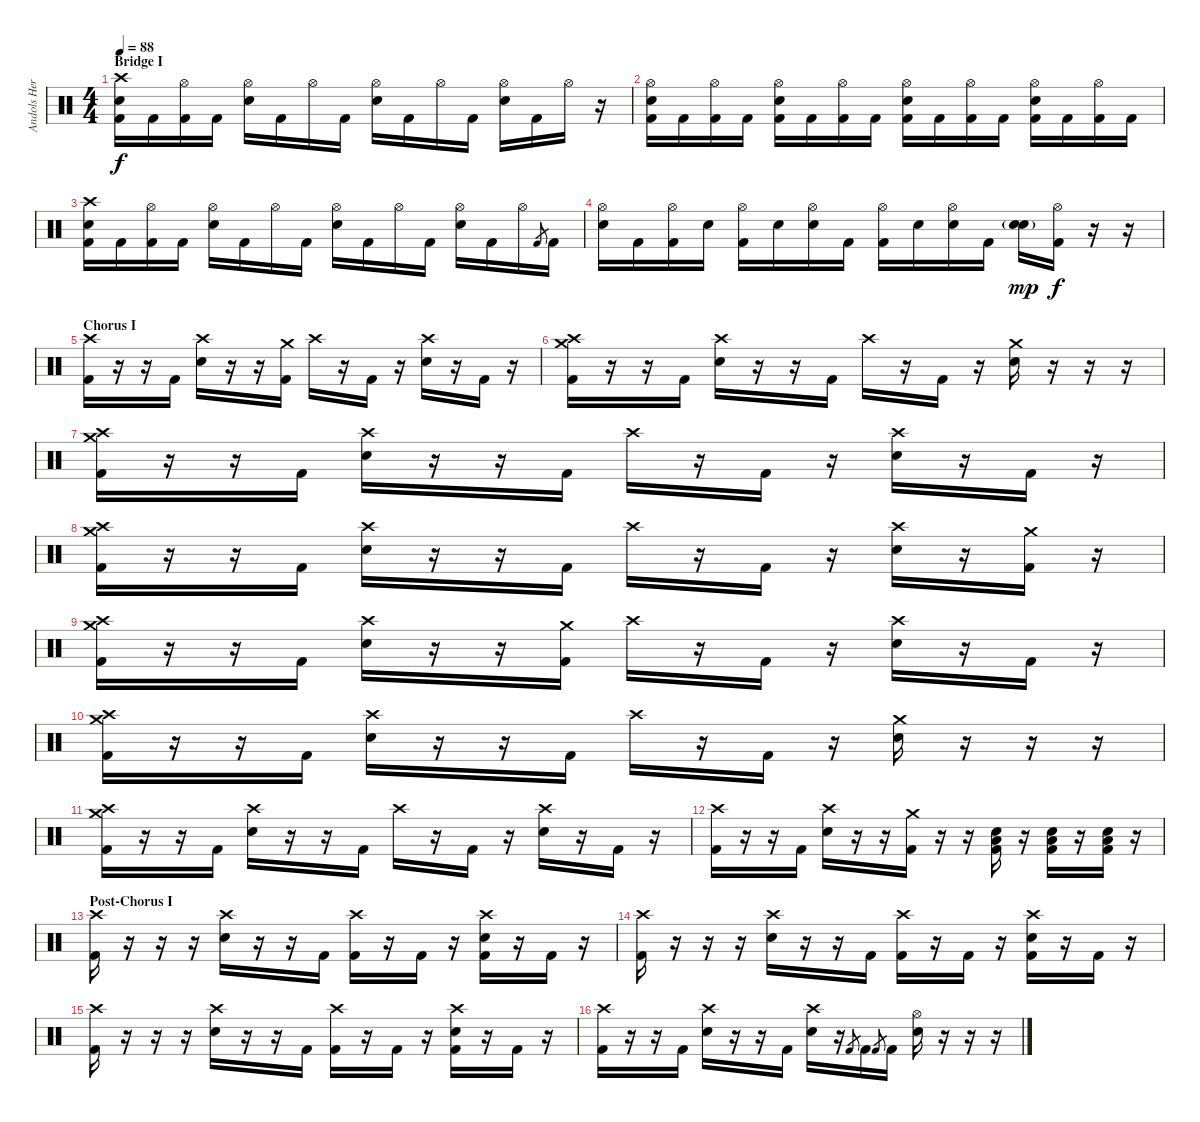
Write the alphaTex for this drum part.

\track ("Andols Herrick" "Andols Her") {instrument percussion}
\staff {score}
\articulation defaults
\ts (4 4)
\section ("" "Bridge I")
\tempo 88
\clef neutral
\ks c
("Crash high (hit)" "Snare (hit) 2" "Kick (hit) 2").16{dy f} "Kick (hit) 2".16 ("Hi-Hat (open)" "Kick (hit) 2").16 "Kick (hit) 2".16 ("Hi-Hat (open)" "Snare (hit) 2").16 "Kick (hit) 2".16 "Hi-Hat (open)".16 "Kick (hit) 2".16 ("Hi-Hat (open)" "Snare (hit) 2").16 "Kick (hit) 2".16 "Hi-Hat (open)".16 "Kick (hit) 2".16 ("Hi-Hat (open)" "Snare (hit) 2").16 "Kick (hit) 2".16 "Hi-Hat (open)".16 r.16 |
("Hi-Hat (open)" "Snare (hit) 2" "Kick (hit) 2").16 "Kick (hit) 2".16 ("Hi-Hat (open)" "Kick (hit) 2").16 "Kick (hit) 2".16 ("Hi-Hat (open)" "Snare (hit) 2" "Kick (hit) 2").16 "Kick (hit) 2".16 ("Hi-Hat (open)" "Kick (hit) 2").16 "Kick (hit) 2".16 ("Hi-Hat (open)" "Snare (hit) 2" "Kick (hit) 2").16 "Kick (hit) 2".16 ("Hi-Hat (open)" "Kick (hit) 2").16 "Kick (hit) 2".16 ("Hi-Hat (open)" "Snare (hit) 2" "Kick (hit) 2").16 "Kick (hit) 2".16 ("Hi-Hat (open)" "Kick (hit) 2").16 "Kick (hit) 2".16 |
("Crash high (hit)" "Snare (hit) 2" "Kick (hit) 2").16 "Kick (hit) 2".16 ("Hi-Hat (open)" "Kick (hit) 2").16 "Kick (hit) 2".16 ("Hi-Hat (open)" "Snare (hit) 2").16 "Kick (hit) 2".16 "Hi-Hat (open)".16 "Kick (hit) 2".16 ("Hi-Hat (open)" "Snare (hit) 2").16 "Kick (hit) 2".16 "Hi-Hat (open)".16 "Kick (hit) 2".16 ("Hi-Hat (open)" "Snare (hit) 2").16 "Kick (hit) 2".16 "Hi-Hat (open)".16 "Kick (hit) 2".8{gr} "Kick (hit) 2".16 |
("Hi-Hat (open)" "Snare (hit) 2").16 "Kick (hit) 2".16 ("Hi-Hat (open)" "Kick (hit) 2").16 "Snare (hit) 2".16 ("Hi-Hat (open)" "Kick (hit) 2").16 "Snare (hit) 2".16 ("Hi-Hat (open)" "Snare (hit) 2").16 "Kick (hit) 2".16 ("Hi-Hat (open)" "Kick (hit) 2").16 "Snare (hit) 2".16 ("Hi-Hat (open)" "Snare (hit) 2").16 "Kick (hit) 2".16 ("Snare (hit) 2"{g} "Snare (hit) 2").16{dy mp} ("Hi-Hat (open)" "Kick (hit) 2").16{dy f} r.16 r.16 |
\section ("" "Chorus I")
("Crash high (hit)" "Kick (hit) 2").16 r.16 r.16 "Kick (hit) 2".16 ("Crash high (hit)" "Snare (hit) 2").16 r.16 r.16 ("Crash medium (hit)" "Kick (hit) 2").16 "Crash high (hit)".16 r.16 "Kick (hit) 2".16 r.16 ("Crash high (hit)" "Snare (hit) 2").16 r.16 "Kick (hit) 2".16 r.16 |
("Crash high (hit)" "Crash medium (hit)" "Kick (hit) 2").16 r.16 r.16 "Kick (hit) 2".16 ("Crash high (hit)" "Snare (hit) 2").16 r.16 r.16 "Kick (hit) 2".16 "Crash high (hit)".16 r.16 "Kick (hit) 2".16 r.16 ("Crash medium (hit)" "Snare (hit) 2").16 r.16 r.16 r.16 |
("Crash high (hit)" "Crash medium (hit)" "Kick (hit) 2").16 r.16 r.16 "Kick (hit) 2".16 ("Crash high (hit)" "Snare (hit) 2").16 r.16 r.16 "Kick (hit) 2".16 "Crash high (hit)".16 r.16 "Kick (hit) 2".16 r.16 ("Crash high (hit)" "Snare (hit) 2").16 r.16 "Kick (hit) 2".16 r.16 |
("Crash high (hit)" "Crash medium (hit)" "Kick (hit) 2").16 r.16 r.16 "Kick (hit) 2".16 ("Crash high (hit)" "Snare (hit) 2").16 r.16 r.16 "Kick (hit) 2".16 "Crash high (hit)".16 r.16 "Kick (hit) 2".16 r.16 ("Crash high (hit)" "Snare (hit) 2").16 r.16 ("Crash medium (hit)" "Kick (hit) 2").16 r.16 |
("Crash high (hit)" "Crash medium (hit)" "Kick (hit) 2").16 r.16 r.16 "Kick (hit) 2".16 ("Crash high (hit)" "Snare (hit) 2").16 r.16 r.16 ("Crash medium (hit)" "Kick (hit) 2").16 "Crash high (hit)".16 r.16 "Kick (hit) 2".16 r.16 ("Crash high (hit)" "Snare (hit) 2").16 r.16 "Kick (hit) 2".16 r.16 |
("Crash high (hit)" "Crash medium (hit)" "Kick (hit) 2").16 r.16 r.16 "Kick (hit) 2".16 ("Crash high (hit)" "Snare (hit) 2").16 r.16 r.16 "Kick (hit) 2".16 "Crash high (hit)".16 r.16 "Kick (hit) 2".16 r.16 ("Crash medium (hit)" "Snare (hit) 2").16 r.16 r.16 r.16 |
("Crash high (hit)" "Crash medium (hit)" "Kick (hit) 2").16 r.16 r.16 "Kick (hit) 2".16 ("Crash high (hit)" "Snare (hit) 2").16 r.16 r.16 "Kick (hit) 2".16 "Crash high (hit)".16 r.16 "Kick (hit) 2".16 r.16 ("Crash high (hit)" "Snare (hit) 2").16 r.16 "Kick (hit) 2".16 r.16 |
("Crash high (hit)" "Kick (hit) 2").16 r.16 r.16 "Kick (hit) 2".16 ("Crash high (hit)" "Snare (hit) 2").16 r.16 r.16 ("Crash medium (hit)" "Kick (hit) 2").16 r.16 r.16 ("Low Floor Tom (hit)" "Snare (hit) 2" "Kick (hit) 2").16 r.16 ("Low Floor Tom (hit)" "Snare (hit) 2" "Kick (hit) 2").16 r.16 ("Low Floor Tom (hit)" "Snare (hit) 2" "Kick (hit) 2").16 r.16 |
\section ("" "Post-Chorus I")
("Crash high (hit)" "Kick (hit) 2").16 r.16 r.16 r.16 ("Crash high (hit)" "Snare (hit) 2").16 r.16 r.16 "Kick (hit) 2".16 ("Crash high (hit)" "Kick (hit) 2").16 r.16 "Kick (hit) 2".16 r.16 ("Crash high (hit)" "Snare (hit) 2" "Kick (hit) 2").16 r.16 "Kick (hit) 2".16 r.16 |
("Crash high (hit)" "Kick (hit) 2").16 r.16 r.16 r.16 ("Crash high (hit)" "Snare (hit) 2").16 r.16 r.16 "Kick (hit) 2".16 ("Crash high (hit)" "Kick (hit) 2").16 r.16 "Kick (hit) 2".16 r.16 ("Crash high (hit)" "Snare (hit) 2" "Kick (hit) 2").16 r.16 "Kick (hit) 2".16 r.16 |
("Crash high (hit)" "Kick (hit) 2").16 r.16 r.16 r.16 ("Crash high (hit)" "Snare (hit) 2").16 r.16 r.16 "Kick (hit) 2".16 ("Crash high (hit)" "Kick (hit) 2").16 r.16 "Kick (hit) 2".16 r.16 ("Crash high (hit)" "Snare (hit) 2" "Kick (hit) 2").16 r.16 "Kick (hit) 2".16 r.16 |
("Crash high (hit)" "Kick (hit) 2").16 r.16 r.16 "Kick (hit) 2".16 ("Crash high (hit)" "Snare (hit) 2").16 r.16 r.16 "Kick (hit) 2".16 ("Crash high (hit)" "Snare (hit) 2").16 r.16 "Kick (hit) 2".8{gr} "Kick (hit) 2".16 "Kick (hit) 2".8{gr} "Kick (hit) 2".16 ("Hi-Hat (open)" "Snare (hit) 2").16 r.16 r.16 r.16
